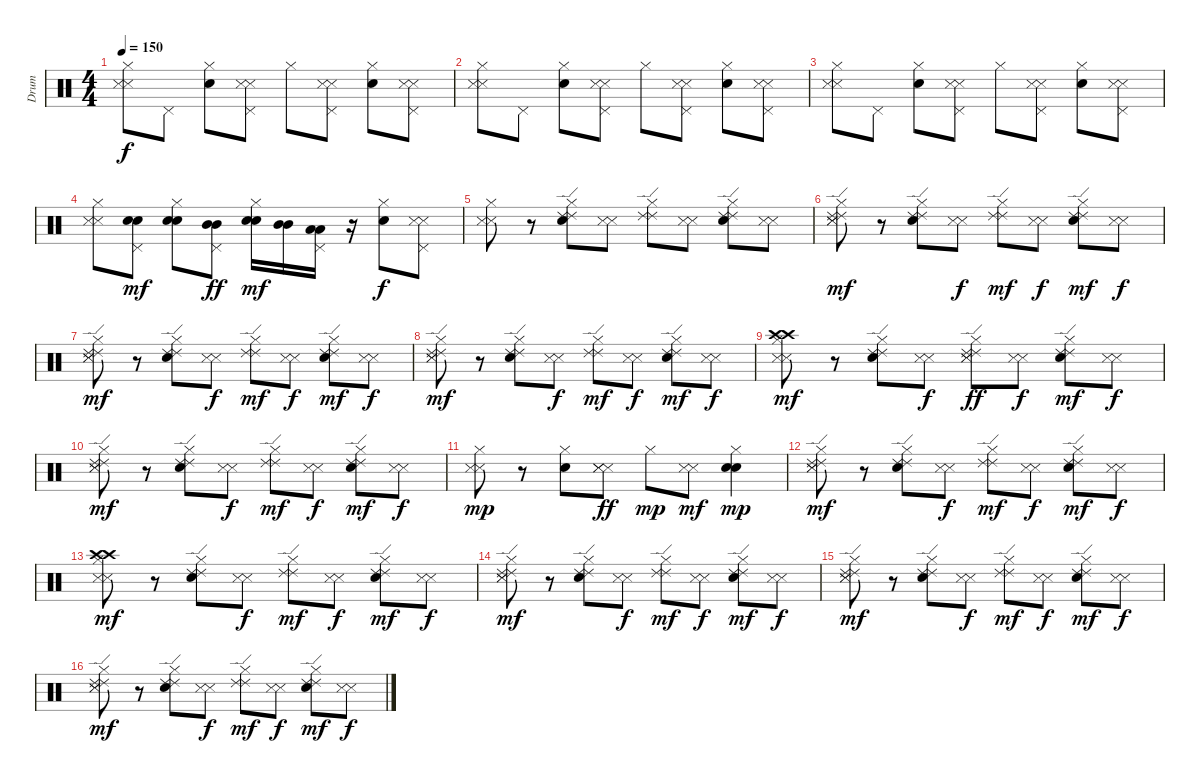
\track ("Drum" "Drum") {instrument percussion}
\staff {score}
\articulation defaults
\ts (4 4)
\tempo 150
\clef neutral
\ks c
("Metronome (hit)" "Metronome (hit)" "Hi-Hat (closed)").8{dy f} "Pedal Hi-Hat (hit)".8 ("Electric Snare (hit)" "Hi-Hat (closed)").8 ("Metronome (hit)" "Metronome (hit)" "Pedal Hi-Hat (hit)").8 "Hi-Hat (closed)".8 ("Metronome (hit)" "Metronome (hit)" "Pedal Hi-Hat (hit)").8 ("Electric Snare (hit)" "Hi-Hat (closed)").8 ("Metronome (hit)" "Metronome (hit)" "Pedal Hi-Hat (hit)").8 |
("Metronome (hit)" "Metronome (hit)" "Hi-Hat (closed)").8 "Pedal Hi-Hat (hit)".8 ("Electric Snare (hit)" "Hi-Hat (closed)").8 ("Metronome (hit)" "Metronome (hit)" "Pedal Hi-Hat (hit)").8 "Hi-Hat (closed)".8 ("Metronome (hit)" "Metronome (hit)" "Pedal Hi-Hat (hit)").8 ("Electric Snare (hit)" "Hi-Hat (closed)").8 ("Metronome (hit)" "Metronome (hit)" "Pedal Hi-Hat (hit)").8 |
("Metronome (hit)" "Metronome (hit)" "Hi-Hat (closed)").8 "Pedal Hi-Hat (hit)".8 ("Electric Snare (hit)" "Hi-Hat (closed)").8 ("Metronome (hit)" "Metronome (hit)" "Pedal Hi-Hat (hit)").8 "Hi-Hat (closed)".8 ("Metronome (hit)" "Metronome (hit)" "Pedal Hi-Hat (hit)").8 ("Electric Snare (hit)" "Hi-Hat (closed)").8 ("Metronome (hit)" "Metronome (hit)" "Pedal Hi-Hat (hit)").8 |
("Metronome (hit)" "Metronome (hit)" "Hi-Hat (closed)").8 ("Electric Snare (hit)" "Electric Snare (hit)" "Pedal Hi-Hat (hit)").8{dy mf} ("Electric Snare (hit)" "Electric Snare (hit)" "Hi-Hat (closed)").8 ("Mid Tom (hit)" "Mid Tom (hit)" "Pedal Hi-Hat (hit)").8{dy ff} ("Electric Snare (hit)" "Electric Snare (hit)" "Hi-Hat (closed)").16{dy mf} ("Mid Tom (hit)" "Mid Tom (hit)").16 ("Low Tom (hit)" "Low Tom (hit)" "Pedal Hi-Hat (hit)").16 r.16 ("Electric Snare (hit)" "Hi-Hat (closed)").8{dy f} ("Metronome (hit)" "Metronome (hit)" "Pedal Hi-Hat (hit)").8 |
("Metronome (hit)" "Metronome (hit)" "Hi-Hat (closed)").8 r.8 ("Electric Snare (hit)" "Ride (edge) 2" "Ride (edge) 2" "Hi-Hat (closed)").8 ("Metronome (hit)" "Metronome (hit)").8 ("Ride (edge) 2" "Ride (edge) 2" "Hi-Hat (closed)").8 ("Metronome (hit)" "Metronome (hit)").8 ("Electric Snare (hit)" "Ride (edge) 2" "Ride (edge) 2" "Hi-Hat (closed)").8 ("Metronome (hit)" "Metronome (hit)").8 |
("Metronome (hit)" "Metronome (hit)" "Ride (edge) 2" "Ride (edge) 2" "Hi-Hat (closed)").8{dy mf} r.8 ("Electric Snare (hit)" "Ride (edge) 2" "Ride (edge) 2" "Hi-Hat (closed)").8 ("Metronome (hit)" "Metronome (hit)").8{dy f} ("Ride (edge) 2" "Ride (edge) 2" "Hi-Hat (closed)").8{dy mf} ("Metronome (hit)" "Metronome (hit)").8{dy f} ("Electric Snare (hit)" "Ride (edge) 2" "Ride (edge) 2" "Hi-Hat (closed)").8{dy mf} ("Metronome (hit)" "Metronome (hit)").8{dy f} |
("Metronome (hit)" "Metronome (hit)" "Ride (edge) 2" "Ride (edge) 2" "Hi-Hat (closed)").8{dy mf} r.8 ("Electric Snare (hit)" "Ride (edge) 2" "Ride (edge) 2" "Hi-Hat (closed)").8 ("Metronome (hit)" "Metronome (hit)").8{dy f} ("Ride (edge) 2" "Ride (edge) 2" "Hi-Hat (closed)").8{dy mf} ("Metronome (hit)" "Metronome (hit)").8{dy f} ("Electric Snare (hit)" "Ride (edge) 2" "Ride (edge) 2" "Hi-Hat (closed)").8{dy mf} ("Metronome (hit)" "Metronome (hit)").8{dy f} |
("Metronome (hit)" "Metronome (hit)" "Ride (edge) 2" "Ride (edge) 2" "Hi-Hat (closed)").8{dy mf} r.8 ("Electric Snare (hit)" "Ride (edge) 2" "Ride (edge) 2" "Hi-Hat (closed)").8 ("Metronome (hit)" "Metronome (hit)").8{dy f} ("Ride (edge) 2" "Ride (edge) 2" "Hi-Hat (closed)").8{dy mf} ("Metronome (hit)" "Metronome (hit)").8{dy f} ("Electric Snare (hit)" "Ride (edge) 2" "Ride (edge) 2" "Hi-Hat (closed)").8{dy mf} ("Metronome (hit)" "Metronome (hit)").8{dy f} |
("Metronome (hit)" "Metronome (hit)" "Crash high (hit)" "Crash high (hit)" "Hi-Hat (closed)").8{dy mf} r.8 ("Electric Snare (hit)" "Ride (edge) 2" "Ride (edge) 2" "Hi-Hat (closed)").8 ("Metronome (hit)" "Metronome (hit)").8{dy f} ("Metronome (hit)" "Metronome (hit)" "Ride (edge) 2" "Ride (edge) 2" "Hi-Hat (closed)").8{dy ff} ("Metronome (hit)" "Metronome (hit)").8{dy f} ("Electric Snare (hit)" "Ride (edge) 2" "Ride (edge) 2" "Hi-Hat (closed)").8{dy mf} ("Metronome (hit)" "Metronome (hit)").8{dy f} |
("Metronome (hit)" "Metronome (hit)" "Ride (edge) 2" "Ride (edge) 2" "Hi-Hat (closed)").8{dy mf} r.8 ("Electric Snare (hit)" "Ride (edge) 2" "Ride (edge) 2" "Hi-Hat (closed)").8 ("Metronome (hit)" "Metronome (hit)").8{dy f} ("Ride (edge) 2" "Ride (edge) 2" "Hi-Hat (closed)").8{dy mf} ("Metronome (hit)" "Metronome (hit)").8{dy f} ("Electric Snare (hit)" "Ride (edge) 2" "Ride (edge) 2" "Hi-Hat (closed)").8{dy mf} ("Metronome (hit)" "Metronome (hit)").8{dy f} |
("Metronome (hit)" "Metronome (hit)" "Hi-Hat (closed)").8{dy mp} r.8 ("Electric Snare (hit)" "Hi-Hat (closed)").8 ("Metronome (hit)" "Metronome (hit)" "Metronome (hit)").8{dy ff} "Hi-Hat (closed)".8{dy mp} ("Metronome (hit)" "Metronome (hit)").8{dy mf} ("Electric Snare (hit)" "Electric Snare (hit)" "Hi-Hat (closed)").4{dy mp} |
("Metronome (hit)" "Metronome (hit)" "Ride (edge) 2" "Ride (edge) 2" "Hi-Hat (closed)").8{dy mf} r.8 ("Electric Snare (hit)" "Ride (edge) 2" "Ride (edge) 2" "Hi-Hat (closed)").8 ("Metronome (hit)" "Metronome (hit)").8{dy f} ("Ride (edge) 2" "Ride (edge) 2" "Hi-Hat (closed)").8{dy mf} ("Metronome (hit)" "Metronome (hit)").8{dy f} ("Electric Snare (hit)" "Ride (edge) 2" "Ride (edge) 2" "Hi-Hat (closed)").8{dy mf} ("Metronome (hit)" "Metronome (hit)").8{dy f} |
("Metronome (hit)" "Metronome (hit)" "Crash high (hit)" "Crash high (hit)" "Hi-Hat (closed)").8{dy mf} r.8 ("Electric Snare (hit)" "Ride (edge) 2" "Ride (edge) 2" "Hi-Hat (closed)").8 ("Metronome (hit)" "Metronome (hit)").8{dy f} ("Ride (edge) 2" "Ride (edge) 2" "Hi-Hat (closed)").8{dy mf} ("Metronome (hit)" "Metronome (hit)").8{dy f} ("Electric Snare (hit)" "Ride (edge) 2" "Ride (edge) 2" "Hi-Hat (closed)").8{dy mf} ("Metronome (hit)" "Metronome (hit)").8{dy f} |
("Metronome (hit)" "Metronome (hit)" "Ride (edge) 2" "Ride (edge) 2" "Hi-Hat (closed)").8{dy mf} r.8 ("Electric Snare (hit)" "Ride (edge) 2" "Ride (edge) 2" "Hi-Hat (closed)").8 ("Metronome (hit)" "Metronome (hit)").8{dy f} ("Ride (edge) 2" "Ride (edge) 2" "Hi-Hat (closed)").8{dy mf} ("Metronome (hit)" "Metronome (hit)").8{dy f} ("Electric Snare (hit)" "Ride (edge) 2" "Ride (edge) 2" "Hi-Hat (closed)").8{dy mf} ("Metronome (hit)" "Metronome (hit)").8{dy f} |
("Metronome (hit)" "Metronome (hit)" "Ride (edge) 2" "Ride (edge) 2" "Hi-Hat (closed)").8{dy mf} r.8 ("Electric Snare (hit)" "Ride (edge) 2" "Ride (edge) 2" "Hi-Hat (closed)").8 ("Metronome (hit)" "Metronome (hit)").8{dy f} ("Ride (edge) 2" "Ride (edge) 2" "Hi-Hat (closed)").8{dy mf} ("Metronome (hit)" "Metronome (hit)").8{dy f} ("Electric Snare (hit)" "Ride (edge) 2" "Ride (edge) 2" "Hi-Hat (closed)").8{dy mf} ("Metronome (hit)" "Metronome (hit)").8{dy f} |
("Metronome (hit)" "Metronome (hit)" "Ride (edge) 2" "Ride (edge) 2" "Hi-Hat (closed)").8{dy mf} r.8 ("Electric Snare (hit)" "Ride (edge) 2" "Ride (edge) 2" "Hi-Hat (closed)").8 ("Metronome (hit)" "Metronome (hit)").8{dy f} ("Ride (edge) 2" "Ride (edge) 2" "Hi-Hat (closed)").8{dy mf} ("Metronome (hit)" "Metronome (hit)").8{dy f} ("Electric Snare (hit)" "Ride (edge) 2" "Ride (edge) 2" "Hi-Hat (closed)").8{dy mf} ("Metronome (hit)" "Metronome (hit)").8{dy f}
